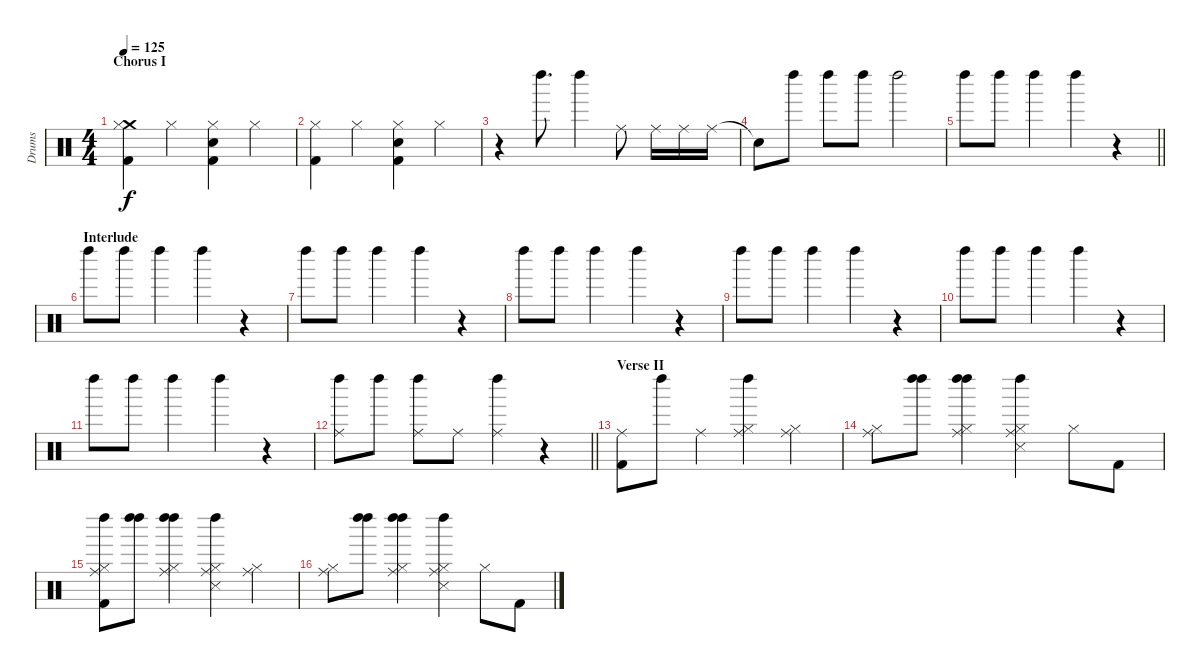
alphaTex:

\track ("Drums" "Drums") {instrument percussion}
\staff {score}
\articulation defaults
\ts (4 4)
\section ("" "Chorus I")
\tempo 125
\clef neutral
\ks c
("Crash medium (hit)" "Hi-Hat (closed)" "Kick (hit) 2").4{dy f} "Hi-Hat (closed)".4 ("Hi-Hat (closed)" "Snare (hit) 2" "Kick (hit) 2").4 "Hi-Hat (closed)".4 |
("Hi-Hat (closed)" "Kick (hit) 2").4 "Hi-Hat (closed)".4 ("Hi-Hat (closed)" "Snare (hit) 2" "Kick (hit) 2").4 "Hi-Hat (closed)".4 |
r.4 "Left Maraca (hit)".8{d} "Left Maraca (hit)".4 "Ride (middle)".8 "Ride (middle)".16 "Ride (middle)".16 "Ride (middle)".16 |
"Snare (hit)"{t}.8 "Left Maraca (hit)".8 "Left Maraca (hit)".8 "Left Maraca (hit)".8 "Left Maraca (hit)".2 |
\barLineRight lightlight "Left Maraca (hit)".8 "Left Maraca (hit)".8 "Left Maraca (hit)".4 "Left Maraca (hit)".4
r.4 |
\section ("" "Interlude")
"Left Maraca (hit)".8 "Left Maraca (hit)".8 "Left Maraca (hit)".4 "Left Maraca (hit)".4 r.4 |
"Left Maraca (hit)".8 "Left Maraca (hit)".8 "Left Maraca (hit)".4 "Left Maraca (hit)".4 r.4 |
"Left Maraca (hit)".8 "Left Maraca (hit)".8 "Left Maraca (hit)".4 "Left Maraca (hit)".4 r.4 |
"Left Maraca (hit)".8 "Left Maraca (hit)".8 "Left Maraca (hit)".4 "Left Maraca (hit)".4 r.4 |
"Left Maraca (hit)".8 "Left Maraca (hit)".8 "Left Maraca (hit)".4 "Left Maraca (hit)".4 r.4 |
"Left Maraca (hit)".8 "Left Maraca (hit)".8 "Left Maraca (hit)".4 "Left Maraca (hit)".4 r.4 |
\barLineRight lightlight
("Ride (middle)" "Left Maraca (hit)").8 "Left Maraca (hit)".8 ("Ride (middle)" "Left Maraca (hit)").8 "Ride (middle)".8 ("Ride (middle)" "Left Maraca (hit)").4 r.4 |
\section ("" "Verse II")
("Ride (middle)" "Kick (hit) 2").8 "Left Maraca (hit)".8 "Ride (middle)".4 ("Ride (middle)" "Hi-Hat (closed)" "Left Maraca (hit)").4 ("Ride (middle)" "Hi-Hat (closed)").4 |
("Ride (middle)" "Hi-Hat (closed)").8 ("Left Maraca (hit)" "Left Maraca (hit)").8 ("Ride (middle)" "Hi-Hat (closed)" "Left Maraca (hit)" "Left Maraca (hit)").4 ("Ride (middle)" "Hi-Hat (closed)" "Snare (side stick) 3" "Left Maraca (hit)").4 "Hi-Hat (closed)".8 "Kick (hit) 2".8 |
("Ride (middle)" "Hi-Hat (closed)" "Kick (hit) 2" "Left Maraca (hit)").8 ("Left Maraca (hit)" "Left Maraca (hit)").8 ("Ride (middle)" "Hi-Hat (closed)" "Left Maraca (hit)" "Left Maraca (hit)").4 ("Ride (middle)" "Hi-Hat (closed)" "Snare (side stick) 3" "Left Maraca (hit)").4 ("Ride (middle)" "Hi-Hat (closed)").4 |
("Ride (middle)" "Hi-Hat (closed)").8 ("Left Maraca (hit)" "Left Maraca (hit)").8 ("Ride (middle)" "Hi-Hat (closed)" "Left Maraca (hit)" "Left Maraca (hit)").4 ("Ride (middle)" "Hi-Hat (closed)" "Snare (side stick) 3" "Left Maraca (hit)").4 "Hi-Hat (closed)".8 "Kick (hit) 2".8
